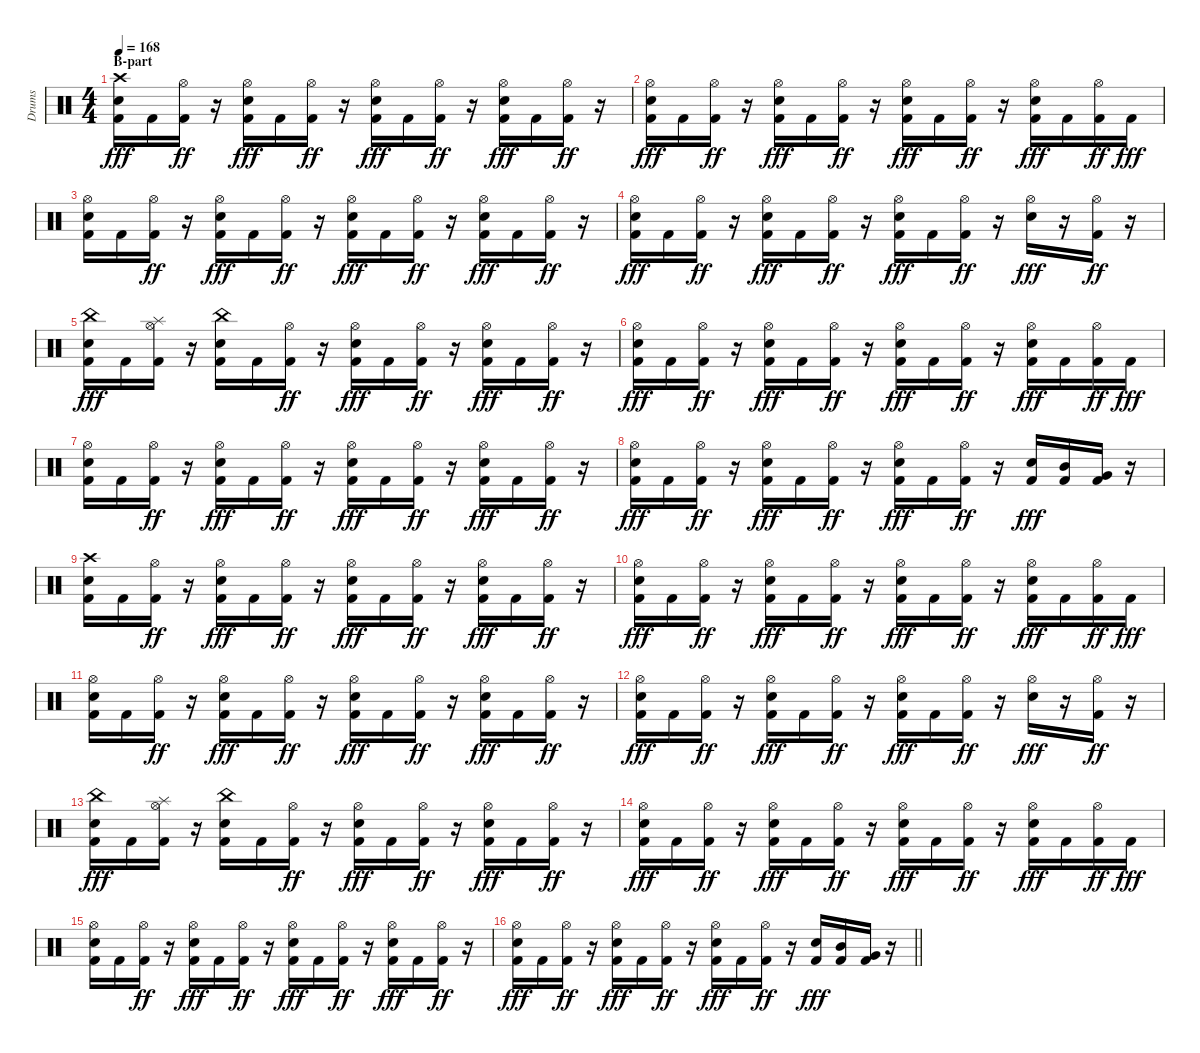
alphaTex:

\track ("Drums" "Drums") {instrument percussion}
\staff {score}
\articulation defaults
\ts (4 4)
\section ("" "B-part")
\tempo 168
\clef neutral
\ks c
("Kick (hit) 2" "Snare (hit) 2" "Crash high (hit)").16{dy fff} "Kick (hit) 2".16 ("Kick (hit) 2" "Hi-Hat (open)").16{dy ff} r.16 ("Kick (hit) 2" "Snare (hit) 2" "Hi-Hat (open)").16{dy fff} "Kick (hit) 2".16 ("Kick (hit) 2" "Hi-Hat (open)").16{dy ff} r.16 ("Kick (hit) 2" "Snare (hit) 2" "Hi-Hat (open)").16{dy fff} "Kick (hit) 2".16 ("Kick (hit) 2" "Hi-Hat (open)").16{dy ff} r.16 ("Kick (hit) 2" "Snare (hit) 2" "Hi-Hat (open)").16{dy fff} "Kick (hit) 2".16 ("Kick (hit) 2" "Hi-Hat (open)").16{dy ff} r.16 |
("Kick (hit) 2" "Snare (hit) 2" "Hi-Hat (open)").16{dy fff} "Kick (hit) 2".16 ("Kick (hit) 2" "Hi-Hat (open)").16{dy ff} r.16 ("Kick (hit) 2" "Snare (hit) 2" "Hi-Hat (open)").16{dy fff} "Kick (hit) 2".16 ("Kick (hit) 2" "Hi-Hat (open)").16{dy ff} r.16 ("Kick (hit) 2" "Snare (hit) 2" "Hi-Hat (open)").16{dy fff} "Kick (hit) 2".16 ("Kick (hit) 2" "Hi-Hat (open)").16{dy ff} r.16 ("Kick (hit) 2" "Snare (hit) 2" "Hi-Hat (open)").16{dy fff} "Kick (hit) 2".16 ("Kick (hit) 2" "Hi-Hat (open)").16{dy ff} "Kick (hit) 2".16{dy fff} |
("Kick (hit) 2" "Snare (hit) 2" "Hi-Hat (open)").16 "Kick (hit) 2".16 ("Kick (hit) 2" "Hi-Hat (open)").16{dy ff} r.16 ("Kick (hit) 2" "Snare (hit) 2" "Hi-Hat (open)").16{dy fff} "Kick (hit) 2".16 ("Kick (hit) 2" "Hi-Hat (open)").16{dy ff} r.16 ("Kick (hit) 2" "Snare (hit) 2" "Hi-Hat (open)").16{dy fff} "Kick (hit) 2".16 ("Kick (hit) 2" "Hi-Hat (open)").16{dy ff} r.16 ("Kick (hit) 2" "Snare (hit) 2" "Hi-Hat (open)").16{dy fff} "Kick (hit) 2".16 ("Kick (hit) 2" "Hi-Hat (open)").16{dy ff} r.16 |
("Kick (hit) 2" "Snare (hit) 2" "Hi-Hat (open)").16{dy fff} "Kick (hit) 2".16 ("Kick (hit) 2" "Hi-Hat (open)").16{dy ff} r.16 ("Kick (hit) 2" "Snare (hit) 2" "Hi-Hat (open)").16{dy fff} "Kick (hit) 2".16 ("Kick (hit) 2" "Hi-Hat (open)").16{dy ff} r.16 ("Kick (hit) 2" "Snare (hit) 2" "Hi-Hat (open)").16{dy fff} "Kick (hit) 2".16 ("Kick (hit) 2" "Hi-Hat (open)").16{dy ff} r.16 ("Snare (hit) 2" "Hi-Hat (open)").16{dy fff} r.16 ("Kick (hit) 2" "Hi-Hat (open)").16{dy ff} r.16 |
("Kick (hit) 2" "Snare (hit) 2" "China (hit)").16{dy fff} "Kick (hit) 2".16 ("Kick (hit) 2" "Hi-Hat (open)" "Splash (hit)").16 r.16 ("Kick (hit) 2" "Snare (hit) 2" "China (hit)").16 "Kick (hit) 2".16 ("Kick (hit) 2" "Hi-Hat (open)").16{dy ff} r.16 ("Kick (hit) 2" "Snare (hit) 2" "Hi-Hat (open)").16{dy fff} "Kick (hit) 2".16 ("Kick (hit) 2" "Hi-Hat (open)").16{dy ff} r.16 ("Kick (hit) 2" "Snare (hit) 2" "Hi-Hat (open)").16{dy fff} "Kick (hit) 2".16 ("Kick (hit) 2" "Hi-Hat (open)").16{dy ff} r.16 |
("Kick (hit) 2" "Snare (hit) 2" "Hi-Hat (open)").16{dy fff} "Kick (hit) 2".16 ("Kick (hit) 2" "Hi-Hat (open)").16{dy ff} r.16 ("Kick (hit) 2" "Snare (hit) 2" "Hi-Hat (open)").16{dy fff} "Kick (hit) 2".16 ("Kick (hit) 2" "Hi-Hat (open)").16{dy ff} r.16 ("Kick (hit) 2" "Snare (hit) 2" "Hi-Hat (open)").16{dy fff} "Kick (hit) 2".16 ("Kick (hit) 2" "Hi-Hat (open)").16{dy ff} r.16 ("Kick (hit) 2" "Snare (hit) 2" "Hi-Hat (open)").16{dy fff} "Kick (hit) 2".16 ("Kick (hit) 2" "Hi-Hat (open)").16{dy ff} "Kick (hit) 2".16{dy fff} |
("Kick (hit) 2" "Snare (hit) 2" "Hi-Hat (open)").16 "Kick (hit) 2".16 ("Kick (hit) 2" "Hi-Hat (open)").16{dy ff} r.16 ("Kick (hit) 2" "Snare (hit) 2" "Hi-Hat (open)").16{dy fff} "Kick (hit) 2".16 ("Kick (hit) 2" "Hi-Hat (open)").16{dy ff} r.16 ("Kick (hit) 2" "Snare (hit) 2" "Hi-Hat (open)").16{dy fff} "Kick (hit) 2".16 ("Kick (hit) 2" "Hi-Hat (open)").16{dy ff} r.16 ("Kick (hit) 2" "Snare (hit) 2" "Hi-Hat (open)").16{dy fff} "Kick (hit) 2".16 ("Kick (hit) 2" "Hi-Hat (open)").16{dy ff} r.16 |
("Kick (hit) 2" "Snare (hit) 2" "Hi-Hat (open)").16{dy fff} "Kick (hit) 2".16 ("Kick (hit) 2" "Hi-Hat (open)").16{dy ff} r.16 ("Kick (hit) 2" "Snare (hit) 2" "Hi-Hat (open)").16{dy fff} "Kick (hit) 2".16 ("Kick (hit) 2" "Hi-Hat (open)").16{dy ff} r.16 ("Kick (hit) 2" "Snare (hit) 2" "Hi-Hat (open)").16{dy fff} "Kick (hit) 2".16 ("Kick (hit) 2" "Hi-Hat (open)").16{dy ff} r.16 ("Kick (hit) 2" "Snare (hit) 2").16{dy fff} ("Kick (hit) 2" "Mid Tom (hit)").16 ("Kick (hit) 2" "Very Low Tom (hit)").16 r.16 |
("Kick (hit) 2" "Snare (hit) 2" "Crash high (hit)").16 "Kick (hit) 2".16 ("Kick (hit) 2" "Hi-Hat (open)").16{dy ff} r.16 ("Kick (hit) 2" "Snare (hit) 2" "Hi-Hat (open)").16{dy fff} "Kick (hit) 2".16 ("Kick (hit) 2" "Hi-Hat (open)").16{dy ff} r.16 ("Kick (hit) 2" "Snare (hit) 2" "Hi-Hat (open)").16{dy fff} "Kick (hit) 2".16 ("Kick (hit) 2" "Hi-Hat (open)").16{dy ff} r.16 ("Kick (hit) 2" "Snare (hit) 2" "Hi-Hat (open)").16{dy fff} "Kick (hit) 2".16 ("Kick (hit) 2" "Hi-Hat (open)").16{dy ff} r.16 |
("Kick (hit) 2" "Snare (hit) 2" "Hi-Hat (open)").16{dy fff} "Kick (hit) 2".16 ("Kick (hit) 2" "Hi-Hat (open)").16{dy ff} r.16 ("Kick (hit) 2" "Snare (hit) 2" "Hi-Hat (open)").16{dy fff} "Kick (hit) 2".16 ("Kick (hit) 2" "Hi-Hat (open)").16{dy ff} r.16 ("Kick (hit) 2" "Snare (hit) 2" "Hi-Hat (open)").16{dy fff} "Kick (hit) 2".16 ("Kick (hit) 2" "Hi-Hat (open)").16{dy ff} r.16 ("Kick (hit) 2" "Snare (hit) 2" "Hi-Hat (open)").16{dy fff} "Kick (hit) 2".16 ("Kick (hit) 2" "Hi-Hat (open)").16{dy ff} "Kick (hit) 2".16{dy fff} |
("Kick (hit) 2" "Snare (hit) 2" "Hi-Hat (open)").16 "Kick (hit) 2".16 ("Kick (hit) 2" "Hi-Hat (open)").16{dy ff} r.16 ("Kick (hit) 2" "Snare (hit) 2" "Hi-Hat (open)").16{dy fff} "Kick (hit) 2".16 ("Kick (hit) 2" "Hi-Hat (open)").16{dy ff} r.16 ("Kick (hit) 2" "Snare (hit) 2" "Hi-Hat (open)").16{dy fff} "Kick (hit) 2".16 ("Kick (hit) 2" "Hi-Hat (open)").16{dy ff} r.16 ("Kick (hit) 2" "Snare (hit) 2" "Hi-Hat (open)").16{dy fff} "Kick (hit) 2".16 ("Kick (hit) 2" "Hi-Hat (open)").16{dy ff} r.16 |
("Kick (hit) 2" "Snare (hit) 2" "Hi-Hat (open)").16{dy fff} "Kick (hit) 2".16 ("Kick (hit) 2" "Hi-Hat (open)").16{dy ff} r.16 ("Kick (hit) 2" "Snare (hit) 2" "Hi-Hat (open)").16{dy fff} "Kick (hit) 2".16 ("Kick (hit) 2" "Hi-Hat (open)").16{dy ff} r.16 ("Kick (hit) 2" "Snare (hit) 2" "Hi-Hat (open)").16{dy fff} "Kick (hit) 2".16 ("Kick (hit) 2" "Hi-Hat (open)").16{dy ff} r.16 ("Snare (hit) 2" "Hi-Hat (open)").16{dy fff} r.16 ("Kick (hit) 2" "Hi-Hat (open)").16{dy ff} r.16 |
("Kick (hit) 2" "Snare (hit) 2" "China (hit)").16{dy fff} "Kick (hit) 2".16 ("Kick (hit) 2" "Hi-Hat (open)" "Splash (hit)").16 r.16 ("Kick (hit) 2" "Snare (hit) 2" "China (hit)").16 "Kick (hit) 2".16 ("Kick (hit) 2" "Hi-Hat (open)").16{dy ff} r.16 ("Kick (hit) 2" "Snare (hit) 2" "Hi-Hat (open)").16{dy fff} "Kick (hit) 2".16 ("Kick (hit) 2" "Hi-Hat (open)").16{dy ff} r.16 ("Kick (hit) 2" "Snare (hit) 2" "Hi-Hat (open)").16{dy fff} "Kick (hit) 2".16 ("Kick (hit) 2" "Hi-Hat (open)").16{dy ff} r.16 |
("Kick (hit) 2" "Snare (hit) 2" "Hi-Hat (open)").16{dy fff} "Kick (hit) 2".16 ("Kick (hit) 2" "Hi-Hat (open)").16{dy ff} r.16 ("Kick (hit) 2" "Snare (hit) 2" "Hi-Hat (open)").16{dy fff} "Kick (hit) 2".16 ("Kick (hit) 2" "Hi-Hat (open)").16{dy ff} r.16 ("Kick (hit) 2" "Snare (hit) 2" "Hi-Hat (open)").16{dy fff} "Kick (hit) 2".16 ("Kick (hit) 2" "Hi-Hat (open)").16{dy ff} r.16 ("Kick (hit) 2" "Snare (hit) 2" "Hi-Hat (open)").16{dy fff} "Kick (hit) 2".16 ("Kick (hit) 2" "Hi-Hat (open)").16{dy ff} "Kick (hit) 2".16{dy fff} |
("Kick (hit) 2" "Snare (hit) 2" "Hi-Hat (open)").16 "Kick (hit) 2".16 ("Kick (hit) 2" "Hi-Hat (open)").16{dy ff} r.16 ("Kick (hit) 2" "Snare (hit) 2" "Hi-Hat (open)").16{dy fff} "Kick (hit) 2".16 ("Kick (hit) 2" "Hi-Hat (open)").16{dy ff} r.16 ("Kick (hit) 2" "Snare (hit) 2" "Hi-Hat (open)").16{dy fff} "Kick (hit) 2".16 ("Kick (hit) 2" "Hi-Hat (open)").16{dy ff} r.16 ("Kick (hit) 2" "Snare (hit) 2" "Hi-Hat (open)").16{dy fff} "Kick (hit) 2".16 ("Kick (hit) 2" "Hi-Hat (open)").16{dy ff} r.16 |
\barLineRight lightlight
("Kick (hit) 2" "Snare (hit) 2" "Hi-Hat (open)").16{dy fff} "Kick (hit) 2".16 ("Kick (hit) 2" "Hi-Hat (open)").16{dy ff} r.16 ("Kick (hit) 2" "Snare (hit) 2" "Hi-Hat (open)").16{dy fff} "Kick (hit) 2".16 ("Kick (hit) 2" "Hi-Hat (open)").16{dy ff} r.16 ("Kick (hit) 2" "Snare (hit) 2" "Hi-Hat (open)").16{dy fff} "Kick (hit) 2".16 ("Kick (hit) 2" "Hi-Hat (open)").16{dy ff} r.16 ("Kick (hit) 2" "Snare (hit) 2").16{dy fff} ("Kick (hit) 2" "Mid Tom (hit)").16 ("Kick (hit) 2" "Very Low Tom (hit)").16 r.16
